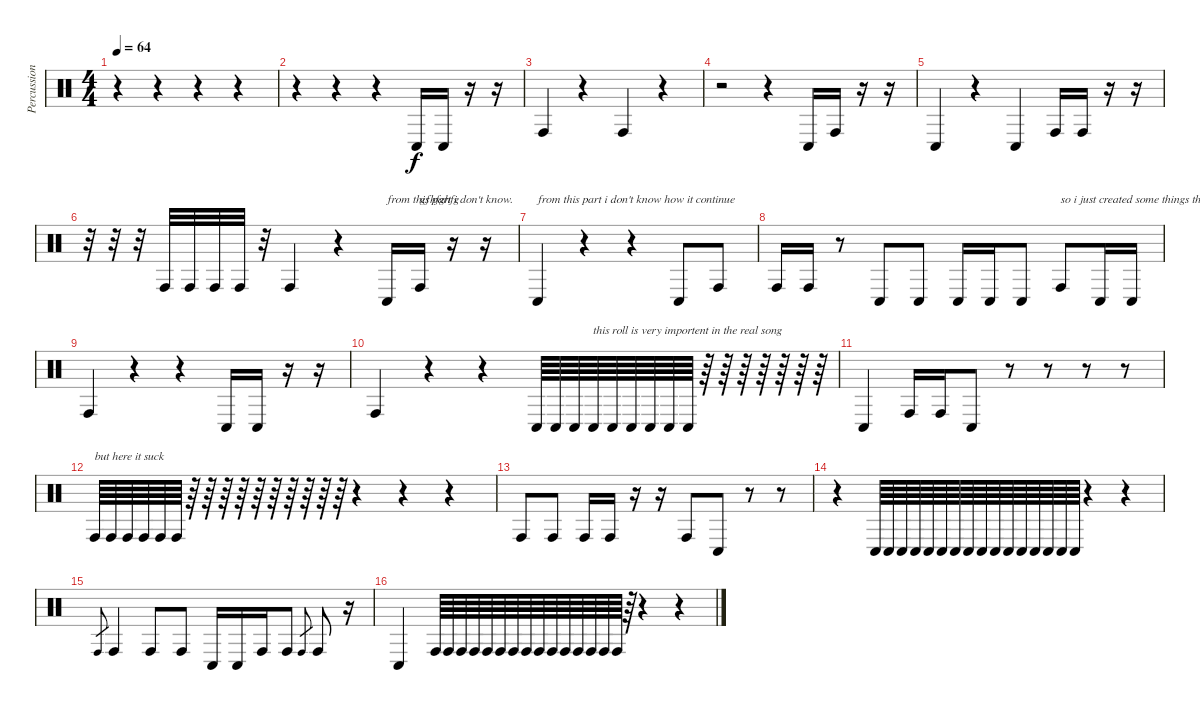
\track ("Percussion" "Percussion") {instrument percussion}
\staff {score}
\articulation defaults
\ts (4 4)
\tempo 64
\clef neutral
\ks c
r.4{dy f} r.4 r.4 r.4 |
r.4 r.4 r.4 "Conga low (hit)".16 "Conga low (hit)".16 r.16 r.16 |
"Conga high (hit)".4 r.4 "Conga high (hit)".4 r.4 |
r.2 r.4 "Conga low (hit)".16 "Conga high (hit)".16 r.16 r.16 |
"Conga low (hit)".4 r.4 "Conga low (hit)".4 "Conga high (hit)".16 "Conga high (hit)".16 r.16 r.16 |
r.32 r.32 r.32 "Conga high (hit)".32 "Conga high (hit)".32 "Conga high (hit)".32 "Conga high (hit)".32 r.32 "Conga high (hit)".4 r.4 "Conga low (hit)".16{txt "from this part i don't know."} "Conga high (hit)".16{txt "gfhfghfg"} r.16 r.16 |
"Conga low (hit)".4{txt "from this part i don't know how it continue"} r.4 r.4 "Conga low (hit)".8 "Conga high (hit)".8 |
"Conga high (hit)".16 "Conga high (hit)".16 r.8 "Conga low (hit)".8 "Conga low (hit)".8 "Conga low (hit)".16 "Conga low (hit)".16 "Conga low (hit)".8 "Conga high (hit)".8{txt "so i just created some things that looked nice"} "Conga low (hit)".16 "Conga low (hit)".16 |
"Conga high (hit)".4 r.4 r.4 "Conga low (hit)".16 "Conga low (hit)".16 r.16 r.16 |
"Conga high (hit)".4 r.4 r.4 "Conga low (hit)".64 "Conga low (hit)".64 "Conga low (hit)".64 "Conga low (hit)".64{txt "this roll is very importent in the real song"} "Conga low (hit)".64 "Conga low (hit)".64 "Conga low (hit)".64 "Conga low (hit)".64 "Conga low (hit)".64 r.64 r.64 r.64 r.64 r.64 r.64 r.64 |
"Conga low (hit)".4 "Conga high (hit)".16 "Conga high (hit)".16 "Conga low (hit)".8 r.8 r.8 r.8 r.8 |
"Conga high (hit)".64{txt "but here it suck"} "Conga high (hit)".64 "Conga high (hit)".64 "Conga high (hit)".64 "Conga high (hit)".64 "Conga high (hit)".64 r.64 r.64 r.64 r.64 r.64 r.64 r.64 r.64 r.64 r.64 r.4 r.4 r.4 |
"Conga high (hit)".8 "Conga high (hit)".8 "Conga high (hit)".16 "Conga high (hit)".16 r.16 r.16 "Conga high (hit)".8 "Conga low (hit)".8 r.8 r.8 |
r.4 "Conga low (hit)".64 "Conga low (hit)".64 "Conga low (hit)".64 "Conga low (hit)".64 "Conga low (hit)".64 "Conga low (hit)".64 "Conga low (hit)".64 "Conga low (hit)".64 "Conga low (hit)".64 "Conga low (hit)".64 "Conga low (hit)".64 "Conga low (hit)".64 "Conga low (hit)".64 "Conga low (hit)".64 "Conga low (hit)".64 "Conga low (hit)".64 r.4 r.4 |
"Conga high (hit)".8{gr} "Conga high (hit)".4 "Conga high (hit)".8 "Conga high (hit)".8 "Conga low (hit)".16 "Conga low (hit)".16 "Conga high (hit)".16 "Conga high (hit)".8 "Conga high (hit)".8{gr} "Conga high (hit)".8 r.16 |
"Conga low (hit)".4 "Conga high (hit)".64 "Conga high (hit)".64 "Conga high (hit)".64 "Conga high (hit)".64 "Conga high (hit)".64 "Conga high (hit)".64 "Conga high (hit)".64 "Conga high (hit)".64 "Conga high (hit)".64 "Conga high (hit)".64 "Conga high (hit)".64 "Conga high (hit)".64 "Conga high (hit)".64 "Conga high (hit)".64 "Conga high (hit)".64 r.64 r.4 r.4
